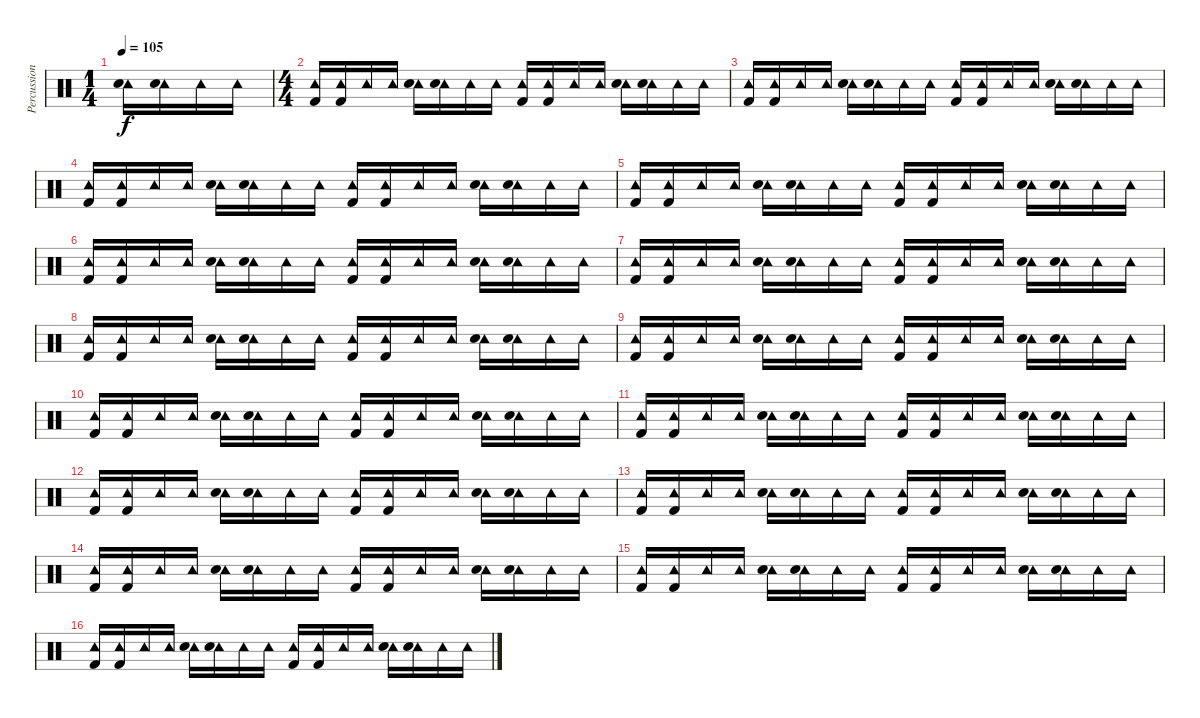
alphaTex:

\track ("Percussions" "Percussion") {instrument percussion}
\staff {score}
\articulation defaults
\ts (1 4)
\tempo 105
\clef neutral
\ks c
("Tambourine (hit)" "Electric Snare (hit)").16{dy f} ("Tambourine (hit)" "Electric Snare (hit)").16 "Tambourine (hit)".16 "Tambourine (hit)".16 |
\ts (4 4)
("Tambourine (hit)" "Kick (hit) 2").16 ("Tambourine (hit)" "Kick (hit) 2").16 "Tambourine (hit)".16 "Tambourine (hit)".16 ("Tambourine (hit)" "Electric Snare (hit)").16 ("Tambourine (hit)" "Electric Snare (hit)").16 "Tambourine (hit)".16 "Tambourine (hit)".16 ("Tambourine (hit)" "Kick (hit) 2").16 ("Tambourine (hit)" "Kick (hit) 2").16 "Tambourine (hit)".16 "Tambourine (hit)".16 ("Tambourine (hit)" "Electric Snare (hit)").16 ("Tambourine (hit)" "Electric Snare (hit)").16 "Tambourine (hit)".16 "Tambourine (hit)".16 |
("Tambourine (hit)" "Kick (hit) 2").16 ("Tambourine (hit)" "Kick (hit) 2").16 "Tambourine (hit)".16 "Tambourine (hit)".16 ("Tambourine (hit)" "Electric Snare (hit)").16 ("Tambourine (hit)" "Electric Snare (hit)").16 "Tambourine (hit)".16 "Tambourine (hit)".16 ("Tambourine (hit)" "Kick (hit) 2").16 ("Tambourine (hit)" "Kick (hit) 2").16 "Tambourine (hit)".16 "Tambourine (hit)".16 ("Tambourine (hit)" "Electric Snare (hit)").16 ("Tambourine (hit)" "Electric Snare (hit)").16 "Tambourine (hit)".16 "Tambourine (hit)".16 |
("Tambourine (hit)" "Kick (hit) 2").16 ("Tambourine (hit)" "Kick (hit) 2").16 "Tambourine (hit)".16 "Tambourine (hit)".16 ("Tambourine (hit)" "Electric Snare (hit)").16 ("Tambourine (hit)" "Electric Snare (hit)").16 "Tambourine (hit)".16 "Tambourine (hit)".16 ("Tambourine (hit)" "Kick (hit) 2").16 ("Tambourine (hit)" "Kick (hit) 2").16 "Tambourine (hit)".16 "Tambourine (hit)".16 ("Tambourine (hit)" "Electric Snare (hit)").16 ("Tambourine (hit)" "Electric Snare (hit)").16 "Tambourine (hit)".16 "Tambourine (hit)".16 |
("Tambourine (hit)" "Kick (hit) 2").16 ("Tambourine (hit)" "Kick (hit) 2").16 "Tambourine (hit)".16 "Tambourine (hit)".16 ("Tambourine (hit)" "Electric Snare (hit)").16 ("Tambourine (hit)" "Electric Snare (hit)").16 "Tambourine (hit)".16 "Tambourine (hit)".16 ("Tambourine (hit)" "Kick (hit) 2").16 ("Tambourine (hit)" "Kick (hit) 2").16 "Tambourine (hit)".16 "Tambourine (hit)".16 ("Tambourine (hit)" "Electric Snare (hit)").16 ("Tambourine (hit)" "Electric Snare (hit)").16 "Tambourine (hit)".16 "Tambourine (hit)".16 |
("Tambourine (hit)" "Kick (hit) 2").16 ("Tambourine (hit)" "Kick (hit) 2").16 "Tambourine (hit)".16 "Tambourine (hit)".16 ("Tambourine (hit)" "Electric Snare (hit)").16 ("Tambourine (hit)" "Electric Snare (hit)").16 "Tambourine (hit)".16 "Tambourine (hit)".16 ("Tambourine (hit)" "Kick (hit) 2").16 ("Tambourine (hit)" "Kick (hit) 2").16 "Tambourine (hit)".16 "Tambourine (hit)".16 ("Tambourine (hit)" "Electric Snare (hit)").16 ("Tambourine (hit)" "Electric Snare (hit)").16 "Tambourine (hit)".16 "Tambourine (hit)".16 |
("Tambourine (hit)" "Kick (hit) 2").16 ("Tambourine (hit)" "Kick (hit) 2").16 "Tambourine (hit)".16 "Tambourine (hit)".16 ("Tambourine (hit)" "Electric Snare (hit)").16 ("Tambourine (hit)" "Electric Snare (hit)").16 "Tambourine (hit)".16 "Tambourine (hit)".16 ("Tambourine (hit)" "Kick (hit) 2").16 ("Tambourine (hit)" "Kick (hit) 2").16 "Tambourine (hit)".16 "Tambourine (hit)".16 ("Tambourine (hit)" "Electric Snare (hit)").16 ("Tambourine (hit)" "Electric Snare (hit)").16 "Tambourine (hit)".16 "Tambourine (hit)".16 |
("Tambourine (hit)" "Kick (hit) 2").16 ("Tambourine (hit)" "Kick (hit) 2").16 "Tambourine (hit)".16 "Tambourine (hit)".16 ("Tambourine (hit)" "Electric Snare (hit)").16 ("Tambourine (hit)" "Electric Snare (hit)").16 "Tambourine (hit)".16 "Tambourine (hit)".16 ("Tambourine (hit)" "Kick (hit) 2").16 ("Tambourine (hit)" "Kick (hit) 2").16 "Tambourine (hit)".16 "Tambourine (hit)".16 ("Tambourine (hit)" "Electric Snare (hit)").16 ("Tambourine (hit)" "Electric Snare (hit)").16 "Tambourine (hit)".16 "Tambourine (hit)".16 |
("Tambourine (hit)" "Kick (hit) 2").16 ("Tambourine (hit)" "Kick (hit) 2").16 "Tambourine (hit)".16 "Tambourine (hit)".16 ("Tambourine (hit)" "Electric Snare (hit)").16 ("Tambourine (hit)" "Electric Snare (hit)").16 "Tambourine (hit)".16 "Tambourine (hit)".16 ("Tambourine (hit)" "Kick (hit) 2").16 ("Tambourine (hit)" "Kick (hit) 2").16 "Tambourine (hit)".16 "Tambourine (hit)".16 ("Tambourine (hit)" "Electric Snare (hit)").16 ("Tambourine (hit)" "Electric Snare (hit)").16 "Tambourine (hit)".16 "Tambourine (hit)".16 |
("Tambourine (hit)" "Kick (hit) 2").16 ("Tambourine (hit)" "Kick (hit) 2").16 "Tambourine (hit)".16 "Tambourine (hit)".16 ("Tambourine (hit)" "Electric Snare (hit)").16 ("Tambourine (hit)" "Electric Snare (hit)").16 "Tambourine (hit)".16 "Tambourine (hit)".16 ("Tambourine (hit)" "Kick (hit) 2").16 ("Tambourine (hit)" "Kick (hit) 2").16 "Tambourine (hit)".16 "Tambourine (hit)".16 ("Tambourine (hit)" "Electric Snare (hit)").16 ("Tambourine (hit)" "Electric Snare (hit)").16 "Tambourine (hit)".16 "Tambourine (hit)".16 |
("Tambourine (hit)" "Kick (hit) 2").16 ("Tambourine (hit)" "Kick (hit) 2").16 "Tambourine (hit)".16 "Tambourine (hit)".16 ("Tambourine (hit)" "Electric Snare (hit)").16 ("Tambourine (hit)" "Electric Snare (hit)").16 "Tambourine (hit)".16 "Tambourine (hit)".16 ("Tambourine (hit)" "Kick (hit) 2").16 ("Tambourine (hit)" "Kick (hit) 2").16 "Tambourine (hit)".16 "Tambourine (hit)".16 ("Tambourine (hit)" "Electric Snare (hit)").16 ("Tambourine (hit)" "Electric Snare (hit)").16 "Tambourine (hit)".16 "Tambourine (hit)".16 |
("Tambourine (hit)" "Kick (hit) 2").16 ("Tambourine (hit)" "Kick (hit) 2").16 "Tambourine (hit)".16 "Tambourine (hit)".16 ("Tambourine (hit)" "Electric Snare (hit)").16 ("Tambourine (hit)" "Electric Snare (hit)").16 "Tambourine (hit)".16 "Tambourine (hit)".16 ("Tambourine (hit)" "Kick (hit) 2").16 ("Tambourine (hit)" "Kick (hit) 2").16 "Tambourine (hit)".16 "Tambourine (hit)".16 ("Tambourine (hit)" "Electric Snare (hit)").16 ("Tambourine (hit)" "Electric Snare (hit)").16 "Tambourine (hit)".16 "Tambourine (hit)".16 |
("Tambourine (hit)" "Kick (hit) 2").16 ("Tambourine (hit)" "Kick (hit) 2").16 "Tambourine (hit)".16 "Tambourine (hit)".16 ("Tambourine (hit)" "Electric Snare (hit)").16 ("Tambourine (hit)" "Electric Snare (hit)").16 "Tambourine (hit)".16 "Tambourine (hit)".16 ("Tambourine (hit)" "Kick (hit) 2").16 ("Tambourine (hit)" "Kick (hit) 2").16 "Tambourine (hit)".16 "Tambourine (hit)".16 ("Tambourine (hit)" "Electric Snare (hit)").16 ("Tambourine (hit)" "Electric Snare (hit)").16 "Tambourine (hit)".16 "Tambourine (hit)".16 |
("Tambourine (hit)" "Kick (hit) 2").16 ("Tambourine (hit)" "Kick (hit) 2").16 "Tambourine (hit)".16 "Tambourine (hit)".16 ("Tambourine (hit)" "Electric Snare (hit)").16 ("Tambourine (hit)" "Electric Snare (hit)").16 "Tambourine (hit)".16 "Tambourine (hit)".16 ("Tambourine (hit)" "Kick (hit) 2").16 ("Tambourine (hit)" "Kick (hit) 2").16 "Tambourine (hit)".16 "Tambourine (hit)".16 ("Tambourine (hit)" "Electric Snare (hit)").16 ("Tambourine (hit)" "Electric Snare (hit)").16 "Tambourine (hit)".16 "Tambourine (hit)".16 |
("Tambourine (hit)" "Kick (hit) 2").16 ("Tambourine (hit)" "Kick (hit) 2").16 "Tambourine (hit)".16 "Tambourine (hit)".16 ("Tambourine (hit)" "Electric Snare (hit)").16 ("Tambourine (hit)" "Electric Snare (hit)").16 "Tambourine (hit)".16 "Tambourine (hit)".16 ("Tambourine (hit)" "Kick (hit) 2").16 ("Tambourine (hit)" "Kick (hit) 2").16 "Tambourine (hit)".16 "Tambourine (hit)".16 ("Tambourine (hit)" "Electric Snare (hit)").16 ("Tambourine (hit)" "Electric Snare (hit)").16 "Tambourine (hit)".16 "Tambourine (hit)".16 |
("Tambourine (hit)" "Kick (hit) 2").16 ("Tambourine (hit)" "Kick (hit) 2").16 "Tambourine (hit)".16 "Tambourine (hit)".16 ("Tambourine (hit)" "Electric Snare (hit)").16 ("Tambourine (hit)" "Electric Snare (hit)").16 "Tambourine (hit)".16 "Tambourine (hit)".16 ("Tambourine (hit)" "Kick (hit) 2").16 ("Tambourine (hit)" "Kick (hit) 2").16 "Tambourine (hit)".16 "Tambourine (hit)".16 ("Tambourine (hit)" "Electric Snare (hit)").16 ("Tambourine (hit)" "Electric Snare (hit)").16 "Tambourine (hit)".16 "Tambourine (hit)".16
